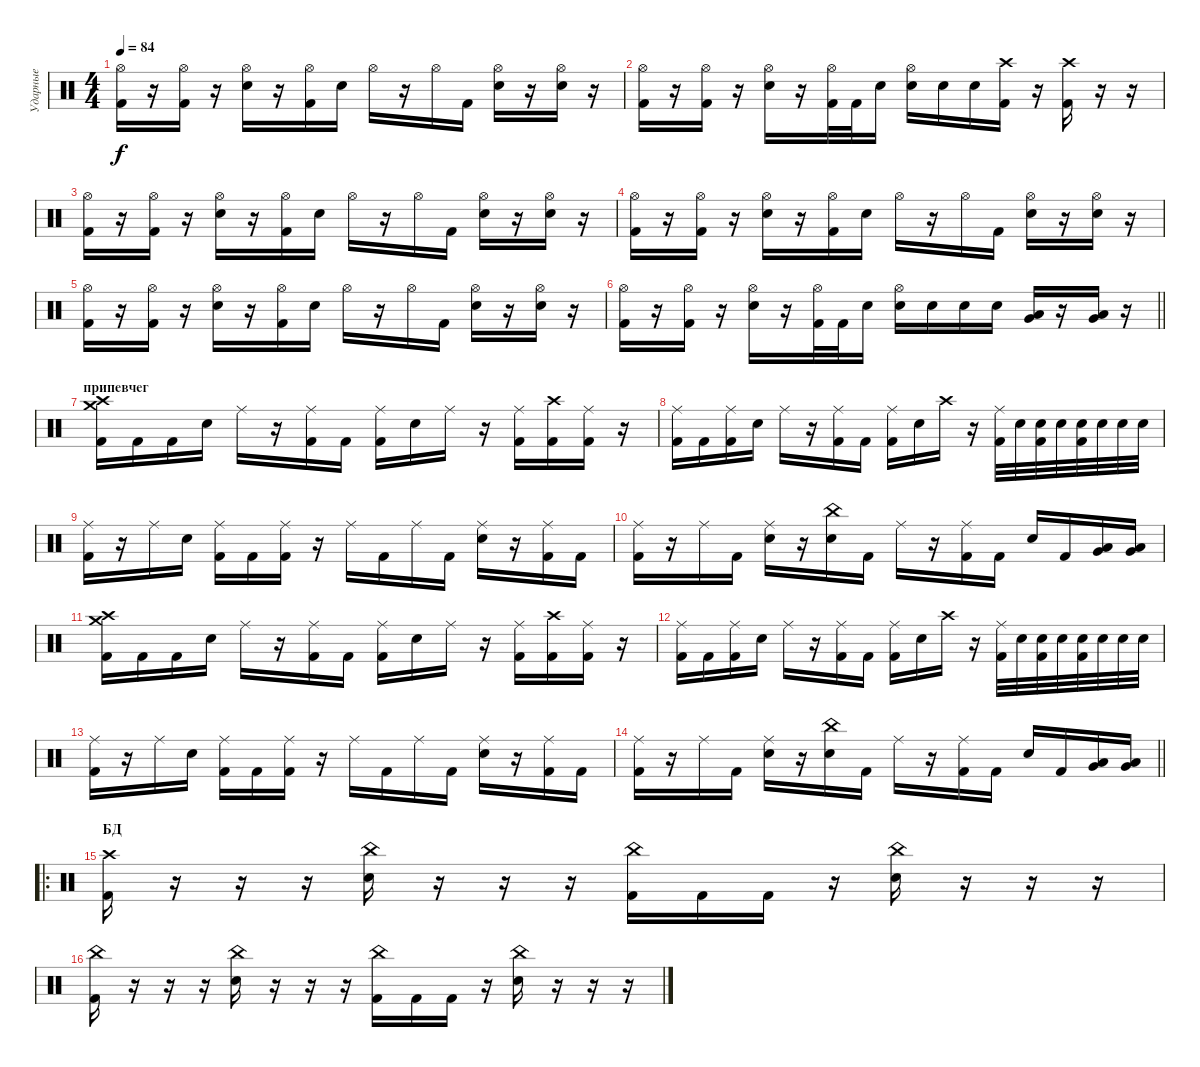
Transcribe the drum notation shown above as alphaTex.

\track ("Ударные" "Ударные") {instrument percussion}
\staff {score}
\articulation defaults
\ts (4 4)
\tempo 84
\clef neutral
\ks c
("Hi-Hat (open)" "Kick (hit) 2").16{dy f} r.16 ("Hi-Hat (open)" "Kick (hit) 2").16 r.16 ("Hi-Hat (open)" "Snare (hit) 2").16 r.16 ("Hi-Hat (open)" "Kick (hit) 2").16 "Snare (hit) 2".16 "Hi-Hat (open)".16 r.16 "Hi-Hat (open)".16 "Kick (hit) 2".16 ("Hi-Hat (open)" "Snare (hit) 2").16 r.16 ("Hi-Hat (open)" "Snare (hit) 2").16 r.16 |
("Hi-Hat (open)" "Kick (hit) 2").16 r.16 ("Hi-Hat (open)" "Kick (hit) 2").16 r.16 ("Hi-Hat (open)" "Snare (hit) 2").16 r.16 ("Hi-Hat (open)" "Kick (hit) 2").32 "Kick (hit) 2".32 "Snare (hit) 2".16 ("Hi-Hat (open)" "Snare (hit) 2").16 "Snare (hit) 2".16 "Snare (hit) 2".16 ("Crash high (hit)" "Kick (hit) 2").16 r.16 ("Crash high (hit)" "Kick (hit) 2").16 r.16 r.16 |
("Hi-Hat (open)" "Kick (hit) 2").16 r.16 ("Hi-Hat (open)" "Kick (hit) 2").16 r.16 ("Hi-Hat (open)" "Snare (hit) 2").16 r.16 ("Hi-Hat (open)" "Kick (hit) 2").16 "Snare (hit) 2".16 "Hi-Hat (open)".16 r.16 "Hi-Hat (open)".16 "Kick (hit) 2".16 ("Hi-Hat (open)" "Snare (hit) 2").16 r.16 ("Hi-Hat (open)" "Snare (hit) 2").16 r.16 |
("Hi-Hat (open)" "Kick (hit) 2").16 r.16 ("Hi-Hat (open)" "Kick (hit) 2").16 r.16 ("Hi-Hat (open)" "Snare (hit) 2").16 r.16 ("Hi-Hat (open)" "Kick (hit) 2").16 "Snare (hit) 2".16 "Hi-Hat (open)".16 r.16 "Hi-Hat (open)".16 "Kick (hit) 2".16 ("Hi-Hat (open)" "Snare (hit) 2").16 r.16 ("Hi-Hat (open)" "Snare (hit) 2").16 r.16 |
("Hi-Hat (open)" "Kick (hit) 2").16 r.16 ("Hi-Hat (open)" "Kick (hit) 2").16 r.16 ("Hi-Hat (open)" "Snare (hit) 2").16 r.16 ("Hi-Hat (open)" "Kick (hit) 2").16 "Snare (hit) 2".16 "Hi-Hat (open)".16 r.16 "Hi-Hat (open)".16 "Kick (hit) 2".16 ("Hi-Hat (open)" "Snare (hit) 2").16 r.16 ("Hi-Hat (open)" "Snare (hit) 2").16 r.16 |
\barLineRight lightlight
("Hi-Hat (open)" "Kick (hit) 2").16 r.16 ("Hi-Hat (open)" "Kick (hit) 2").16 r.16 ("Hi-Hat (open)" "Snare (hit) 2").16 r.16 ("Hi-Hat (open)" "Kick (hit) 2").32 "Kick (hit) 2".32 "Snare (hit) 2".16 ("Hi-Hat (open)" "Snare (hit) 2").16 "Snare (hit) 2".16 "Snare (hit) 2".16 "Snare (hit) 2".16 ("Low Tom (hit)" "Very Low Tom (hit)").16 r.16 ("Very Low Tom (hit)" "Low Floor Tom (hit)").16 r.16 |
\section ("" "припевчег")
("Crash high (hit)" "Crash medium (hit)" "Kick (hit) 2").16 "Kick (hit) 2".16 "Kick (hit) 2".16 "Snare (hit) 2".16 "Ride (middle)".16 r.16 ("Ride (middle)" "Kick (hit) 2").16 "Kick (hit) 2".16 ("Ride (middle)" "Kick (hit) 2").16 "Snare (hit) 2".16 "Ride (middle)".16 r.16 ("Ride (middle)" "Kick (hit) 2").16 ("Crash high (hit)" "Kick (hit) 2").16 ("Ride (middle)" "Kick (hit) 2").16 r.16 |
("Ride (middle)" "Kick (hit) 2").16 "Kick (hit) 2".16 ("Ride (middle)" "Kick (hit) 2").16 "Snare (hit) 2".16 "Ride (middle)".16 r.16 ("Ride (middle)" "Kick (hit) 2").16 "Kick (hit) 2".16 ("Ride (middle)" "Kick (hit) 2").16 "Snare (hit) 2".16 "Crash high (hit)".16 r.16 ("Ride (middle)" "Kick (hit) 2").32 "Snare (hit) 2".32 ("Snare (hit) 2" "Kick (hit) 2").32 "Snare (hit) 2".32 ("Snare (hit) 2" "Kick (hit) 2").32 "Snare (hit) 2".32 "Snare (hit) 2".32 "Snare (hit) 2".32 |
("Ride (middle)" "Kick (hit) 2").16 r.16 "Ride (middle)".16 "Snare (hit) 2".16 ("Ride (middle)" "Kick (hit) 2").16 "Kick (hit) 2".16 ("Ride (middle)" "Kick (hit) 2").16 r.16 "Ride (middle)".16 "Kick (hit) 2".16 "Ride (middle)".16 "Kick (hit) 2".16 ("Ride (middle)" "Snare (hit) 2").16 r.16 ("Ride (middle)" "Kick (hit) 2").16 "Kick (hit) 2".16 |
("Ride (middle)" "Kick (hit) 2").16 r.16 "Ride (middle)".16 "Kick (hit) 2".16 ("Ride (middle)" "Snare (hit) 2").16 r.16 ("China (hit)" "Snare (hit) 2").16 "Kick (hit) 2".16 "Ride (middle)".16 r.16 ("Ride (middle)" "Kick (hit) 2").16 "Kick (hit) 2".16 "Snare (hit) 2".16 "Kick (hit) 2".16 ("Low Tom (hit)" "Very Low Tom (hit)").16 ("Very Low Tom (hit)" "Low Floor Tom (hit)").16 |
("Crash high (hit)" "Crash medium (hit)" "Kick (hit) 2").16 "Kick (hit) 2".16 "Kick (hit) 2".16 "Snare (hit) 2".16 "Ride (middle)".16 r.16 ("Ride (middle)" "Kick (hit) 2").16 "Kick (hit) 2".16 ("Ride (middle)" "Kick (hit) 2").16 "Snare (hit) 2".16 "Ride (middle)".16 r.16 ("Ride (middle)" "Kick (hit) 2").16 ("Crash high (hit)" "Kick (hit) 2").16 ("Ride (middle)" "Kick (hit) 2").16 r.16 |
("Ride (middle)" "Kick (hit) 2").16 "Kick (hit) 2".16 ("Ride (middle)" "Kick (hit) 2").16 "Snare (hit) 2".16 "Ride (middle)".16 r.16 ("Ride (middle)" "Kick (hit) 2").16 "Kick (hit) 2".16 ("Ride (middle)" "Kick (hit) 2").16 "Snare (hit) 2".16 "Crash high (hit)".16 r.16 ("Ride (middle)" "Kick (hit) 2").32 "Snare (hit) 2".32 ("Snare (hit) 2" "Kick (hit) 2").32 "Snare (hit) 2".32 ("Snare (hit) 2" "Kick (hit) 2").32 "Snare (hit) 2".32 "Snare (hit) 2".32 "Snare (hit) 2".32 |
("Ride (middle)" "Kick (hit) 2").16 r.16 "Ride (middle)".16 "Snare (hit) 2".16 ("Ride (middle)" "Kick (hit) 2").16 "Kick (hit) 2".16 ("Ride (middle)" "Kick (hit) 2").16 r.16 "Ride (middle)".16 "Kick (hit) 2".16 "Ride (middle)".16 "Kick (hit) 2".16 ("Ride (middle)" "Snare (hit) 2").16 r.16 ("Ride (middle)" "Kick (hit) 2").16 "Kick (hit) 2".16 |
\barLineRight lightlight
("Ride (middle)" "Kick (hit) 2").16 r.16 "Ride (middle)".16 "Kick (hit) 2".16 ("Ride (middle)" "Snare (hit) 2").16 r.16 ("China (hit)" "Snare (hit) 2").16 "Kick (hit) 2".16 "Ride (middle)".16 r.16 ("Ride (middle)" "Kick (hit) 2").16 "Kick (hit) 2".16 "Snare (hit) 2".16 "Kick (hit) 2".16 ("Low Tom (hit)" "Very Low Tom (hit)").16 ("Very Low Tom (hit)" "Low Floor Tom (hit)").16 |
\ro
\section ("" "БД")
("Crash high (hit)" "Kick (hit) 2").16 r.16 r.16 r.16 ("China (hit)" "Snare (hit) 2").16 r.16 r.16 r.16 ("China (hit)" "Kick (hit) 2").16 "Kick (hit) 2".16 "Kick (hit) 2".16 r.16 ("China (hit)" "Snare (hit) 2").16 r.16 r.16 r.16 |
("China (hit)" "Kick (hit) 2").16 r.16 r.16 r.16 ("China (hit)" "Snare (hit) 2").16 r.16 r.16 r.16 ("China (hit)" "Kick (hit) 2").16 "Kick (hit) 2".16 "Kick (hit) 2".16 r.16 ("China (hit)" "Snare (hit) 2").16 r.16 r.16 r.16
